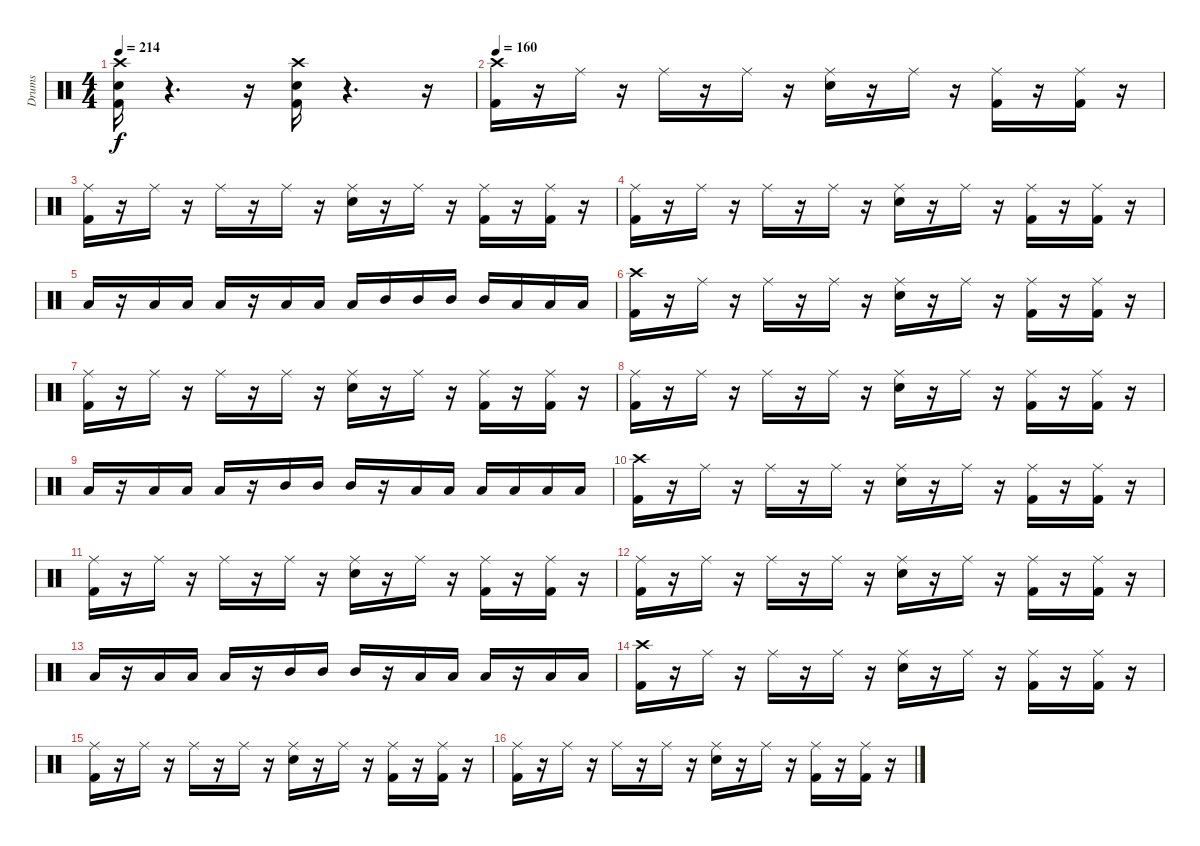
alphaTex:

\track ("Drums               " "Drums     ") {instrument percussion}
\staff {score}
\articulation defaults
\ts (4 4)
\tempo 214
\clef neutral
\ks c
("Kick (hit) 2" "Snare (hit) 2" "Crash high (hit)").16{dy f} r.4{d} r.16 ("Kick (hit) 2" "Snare (hit) 2" "Crash high (hit)").16 r.4{d} r.16 |
\tempo 160
("Kick (hit) 2" "Crash high (hit)").16 r.16 "Ride (middle)".16 r.16 "Ride (middle)".16 r.16 "Ride (middle)".16 r.16 ("Snare (hit) 2" "Ride (middle)").16 r.16 "Ride (middle)".16 r.16 ("Kick (hit) 2" "Ride (middle)").16 r.16 ("Kick (hit) 2" "Ride (middle)").16 r.16 |
("Kick (hit) 2" "Ride (middle)").16 r.16 "Ride (middle)".16 r.16 "Ride (middle)".16 r.16 "Ride (middle)".16 r.16 ("Snare (hit) 2" "Ride (middle)").16 r.16 "Ride (middle)".16 r.16 ("Kick (hit) 2" "Ride (middle)").16 r.16 ("Kick (hit) 2" "Ride (middle)").16 r.16 |
("Kick (hit) 2" "Ride (middle)").16 r.16 "Ride (middle)".16 r.16 "Ride (middle)".16 r.16 "Ride (middle)".16 r.16 ("Snare (hit) 2" "Ride (middle)").16 r.16 "Ride (middle)".16 r.16 ("Kick (hit) 2" "Ride (middle)").16 r.16 ("Kick (hit) 2" "Ride (middle)").16 r.16 |
"Low Floor Tom (hit)".16 r.16 "Low Floor Tom (hit)".16 "Low Floor Tom (hit)".16 "Low Floor Tom (hit)".16 r.16 "Low Tom (hit)".16 "Low Tom (hit)".16 "Low Tom (hit)".16 "Mid Tom (hit)".16 "Mid Tom (hit)".16 "Mid Tom (hit)".16 "Mid Tom (hit)".16 "Low Tom (hit)".16 "Low Tom (hit)".16 "Low Tom (hit)".16 |
("Kick (hit) 2" "Crash high (hit)").16 r.16 "Ride (middle)".16 r.16 "Ride (middle)".16 r.16 "Ride (middle)".16 r.16 ("Snare (hit) 2" "Ride (middle)").16 r.16 "Ride (middle)".16 r.16 ("Kick (hit) 2" "Ride (middle)").16 r.16 ("Kick (hit) 2" "Ride (middle)").16 r.16 |
("Kick (hit) 2" "Ride (middle)").16 r.16 "Ride (middle)".16 r.16 "Ride (middle)".16 r.16 "Ride (middle)".16 r.16 ("Snare (hit) 2" "Ride (middle)").16 r.16 "Ride (middle)".16 r.16 ("Kick (hit) 2" "Ride (middle)").16 r.16 ("Kick (hit) 2" "Ride (middle)").16 r.16 |
("Kick (hit) 2" "Ride (middle)").16 r.16 "Ride (middle)".16 r.16 "Ride (middle)".16 r.16 "Ride (middle)".16 r.16 ("Snare (hit) 2" "Ride (middle)").16 r.16 "Ride (middle)".16 r.16 ("Kick (hit) 2" "Ride (middle)").16 r.16 ("Kick (hit) 2" "Ride (middle)").16 r.16 |
"Low Tom (hit)".16 r.16 "Low Tom (hit)".16 "Low Tom (hit)".16 "Low Tom (hit)".16 r.16 "Mid Tom (hit)".16 "Mid Tom (hit)".16 "Mid Tom (hit)".16 r.16 "Low Floor Tom (hit)".16 "Low Floor Tom (hit)".16 "Low Floor Tom (hit)".16 "Low Tom (hit)".16 "Low Tom (hit)".16 "Low Tom (hit)".16 |
("Kick (hit) 2" "Crash high (hit)").16 r.16 "Ride (middle)".16 r.16 "Ride (middle)".16 r.16 "Ride (middle)".16 r.16 ("Snare (hit) 2" "Ride (middle)").16 r.16 "Ride (middle)".16 r.16 ("Kick (hit) 2" "Ride (middle)").16 r.16 ("Kick (hit) 2" "Ride (middle)").16 r.16 |
("Kick (hit) 2" "Ride (middle)").16 r.16 "Ride (middle)".16 r.16 "Ride (middle)".16 r.16 "Ride (middle)".16 r.16 ("Snare (hit) 2" "Ride (middle)").16 r.16 "Ride (middle)".16 r.16 ("Kick (hit) 2" "Ride (middle)").16 r.16 ("Kick (hit) 2" "Ride (middle)").16 r.16 |
("Kick (hit) 2" "Ride (middle)").16 r.16 "Ride (middle)".16 r.16 "Ride (middle)".16 r.16 "Ride (middle)".16 r.16 ("Snare (hit) 2" "Ride (middle)").16 r.16 "Ride (middle)".16 r.16 ("Kick (hit) 2" "Ride (middle)").16 r.16 ("Kick (hit) 2" "Ride (middle)").16 r.16 |
"Low Floor Tom (hit)".16 r.16 "Low Floor Tom (hit)".16 "Low Floor Tom (hit)".16 "Low Floor Tom (hit)".16 r.16 "Mid Tom (hit)".16 "Mid Tom (hit)".16 "Mid Tom (hit)".16 r.16 "Low Tom (hit)".16 "Low Tom (hit)".16 "Low Tom (hit)".16 r.16 "Low Tom (hit)".16 "Low Tom (hit)".16 |
("Kick (hit) 2" "Crash high (hit)").16 r.16 "Ride (middle)".16 r.16 "Ride (middle)".16 r.16 "Ride (middle)".16 r.16 ("Snare (hit) 2" "Ride (middle)").16 r.16 "Ride (middle)".16 r.16 ("Kick (hit) 2" "Ride (middle)").16 r.16 ("Kick (hit) 2" "Ride (middle)").16 r.16 |
("Kick (hit) 2" "Ride (middle)").16 r.16 "Ride (middle)".16 r.16 "Ride (middle)".16 r.16 "Ride (middle)".16 r.16 ("Snare (hit) 2" "Ride (middle)").16 r.16 "Ride (middle)".16 r.16 ("Kick (hit) 2" "Ride (middle)").16 r.16 ("Kick (hit) 2" "Ride (middle)").16 r.16 |
("Kick (hit) 2" "Ride (middle)").16 r.16 "Ride (middle)".16 r.16 "Ride (middle)".16 r.16 "Ride (middle)".16 r.16 ("Snare (hit) 2" "Ride (middle)").16 r.16 "Ride (middle)".16 r.16 ("Kick (hit) 2" "Ride (middle)").16 r.16 ("Kick (hit) 2" "Ride (middle)").16 r.16
